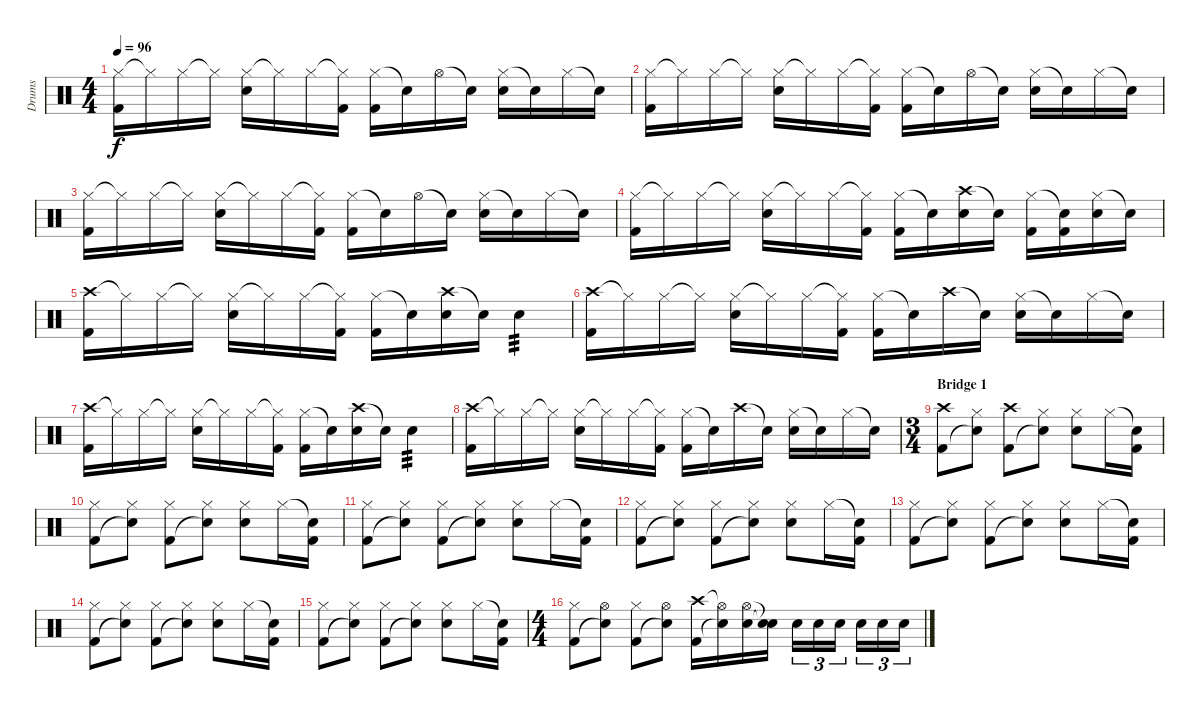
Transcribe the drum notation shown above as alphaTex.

\track ("Drums" "Drums") {instrument percussion}
\staff {score}
\articulation defaults
\ts (4 4)
\tempo 96
\clef neutral
\ks c
("Hi-Hat (closed)" "Kick (hit) 2").16{dy f} "Hi-Hat (closed)"{t}.16 "Hi-Hat (closed)".16 "Hi-Hat (closed)"{t}.16 ("Hi-Hat (closed)" "Electric Snare (hit)").16 "Hi-Hat (closed)"{t}.16 "Hi-Hat (closed)".16 ("Hi-Hat (closed)"{t} "Kick (hit) 2").16 ("Hi-Hat (closed)" "Kick (hit) 2").16 "Snare (hit)"{t}.16 "Hi-Hat (open)".16 "Snare (hit)"{t}.16 ("Hi-Hat (closed)" "Electric Snare (hit)").16 "Snare (hit)"{t}.16 "Hi-Hat (closed)".16 "Snare (hit)"{t}.16 |
("Hi-Hat (closed)" "Kick (hit) 2").16 "Hi-Hat (closed)"{t}.16 "Hi-Hat (closed)".16 "Hi-Hat (closed)"{t}.16 ("Hi-Hat (closed)" "Electric Snare (hit)").16 "Hi-Hat (closed)"{t}.16 "Hi-Hat (closed)".16 ("Hi-Hat (closed)"{t} "Kick (hit) 2").16 ("Hi-Hat (closed)" "Kick (hit) 2").16 "Snare (hit)"{t}.16 "Hi-Hat (open)".16 "Snare (hit)"{t}.16 ("Hi-Hat (closed)" "Electric Snare (hit)").16 "Snare (hit)"{t}.16 "Hi-Hat (closed)".16 "Snare (hit)"{t}.16 |
("Hi-Hat (closed)" "Kick (hit) 2").16 "Hi-Hat (closed)"{t}.16 "Hi-Hat (closed)".16 "Hi-Hat (closed)"{t}.16 ("Hi-Hat (closed)" "Electric Snare (hit)").16 "Hi-Hat (closed)"{t}.16 "Hi-Hat (closed)".16 ("Hi-Hat (closed)"{t} "Kick (hit) 2").16 ("Hi-Hat (closed)" "Kick (hit) 2").16 "Snare (hit)"{t}.16 "Hi-Hat (open)".16 "Snare (hit)"{t}.16 ("Hi-Hat (closed)" "Electric Snare (hit)").16 "Snare (hit)"{t}.16 "Hi-Hat (closed)".16 "Snare (hit)"{t}.16 |
("Hi-Hat (closed)" "Kick (hit) 2").16 "Hi-Hat (closed)"{t}.16 "Hi-Hat (closed)".16 "Hi-Hat (closed)"{t}.16 ("Hi-Hat (closed)" "Electric Snare (hit)").16 "Hi-Hat (closed)"{t}.16 "Hi-Hat (closed)".16 ("Hi-Hat (closed)"{t} "Kick (hit) 2").16 ("Hi-Hat (closed)" "Kick (hit) 2").16 "Snare (hit)"{t}.16 ("Crash high (hit)" "Electric Snare (hit)").16 "Snare (hit)"{t}.16 ("Hi-Hat (closed)" "Kick (hit) 2").16 ("Snare (hit)"{t} "Kick (hit) 2").16 ("Hi-Hat (closed)" "Electric Snare (hit)").16 "Snare (hit)"{t}.16 |
("Crash high (hit)" "Kick (hit) 2").16 "Hi-Hat (closed)"{t}.16 "Hi-Hat (closed)".16 "Hi-Hat (closed)"{t}.16 ("Hi-Hat (closed)" "Electric Snare (hit)").16 "Hi-Hat (closed)"{t}.16 "Hi-Hat (closed)".16 ("Hi-Hat (closed)"{t} "Kick (hit) 2").16 ("Hi-Hat (closed)" "Kick (hit) 2").16 "Snare (hit)"{t}.16 ("Crash high (hit)" "Electric Snare (hit)").16 "Snare (hit)"{t}.16 "Electric Snare (hit)".4{tp 3} |
("Crash high (hit)" "Kick (hit) 2").16 "Hi-Hat (closed)"{t}.16 "Hi-Hat (closed)".16 "Hi-Hat (closed)"{t}.16 ("Hi-Hat (closed)" "Electric Snare (hit)").16 "Hi-Hat (closed)"{t}.16 "Hi-Hat (closed)".16 ("Hi-Hat (closed)"{t} "Kick (hit) 2").16 ("Hi-Hat (closed)" "Kick (hit) 2").16 "Snare (hit)"{t}.16 "Crash high (hit)".16 "Snare (hit)"{t}.16 ("Hi-Hat (closed)" "Electric Snare (hit)").16 "Snare (hit)"{t}.16 "Hi-Hat (closed)".16 "Snare (hit)"{t}.16 |
("Crash high (hit)" "Kick (hit) 2").16 "Hi-Hat (closed)"{t}.16 "Hi-Hat (closed)".16 "Hi-Hat (closed)"{t}.16 ("Hi-Hat (closed)" "Electric Snare (hit)").16 "Hi-Hat (closed)"{t}.16 "Hi-Hat (closed)".16 ("Hi-Hat (closed)"{t} "Kick (hit) 2").16 ("Hi-Hat (closed)" "Kick (hit) 2").16 "Snare (hit)"{t}.16 ("Crash high (hit)" "Electric Snare (hit)").16 "Snare (hit)"{t}.16 "Electric Snare (hit)".4{tp 3} |
("Crash high (hit)" "Kick (hit) 2").16 "Hi-Hat (closed)"{t}.16 "Hi-Hat (closed)".16 "Hi-Hat (closed)"{t}.16 ("Hi-Hat (closed)" "Electric Snare (hit)").16 "Hi-Hat (closed)"{t}.16 "Hi-Hat (closed)".16 ("Hi-Hat (closed)"{t} "Kick (hit) 2").16 ("Hi-Hat (closed)" "Kick (hit) 2").16 "Snare (hit)"{t}.16 "Crash high (hit)".16 "Snare (hit)"{t}.16 ("Hi-Hat (closed)" "Electric Snare (hit)").16 "Snare (hit)"{t}.16 "Hi-Hat (closed)".16 "Snare (hit)"{t}.16 |
\ts (3 4)
\section ("" "Bridge 1")
("Crash high (hit)" "Kick (hit) 2").8 ("Hi-Hat (closed)" "Snare (hit)"{t}).8 ("Crash high (hit)" "Kick (hit) 2").8 ("Hi-Hat (closed)" "Snare (hit)"{t}).8 ("Hi-Hat (closed)" "Electric Snare (hit)").8 "Hi-Hat (closed)".16 ("Snare (hit)"{t} "Kick (hit) 2").16 |
("Hi-Hat (closed)" "Kick (hit) 2").8 ("Hi-Hat (closed)" "Snare (hit)"{t}).8 ("Hi-Hat (closed)" "Kick (hit) 2").8 ("Hi-Hat (closed)" "Snare (hit)"{t}).8 ("Hi-Hat (closed)" "Electric Snare (hit)").8 "Hi-Hat (closed)".16 ("Snare (hit)"{t} "Kick (hit) 2").16 |
("Hi-Hat (closed)" "Kick (hit) 2").8 ("Hi-Hat (closed)" "Snare (hit)"{t}).8 ("Hi-Hat (closed)" "Kick (hit) 2").8 ("Hi-Hat (closed)" "Snare (hit)"{t}).8 ("Hi-Hat (closed)" "Electric Snare (hit)").8 "Hi-Hat (closed)".16 ("Snare (hit)"{t} "Kick (hit) 2").16 |
("Hi-Hat (closed)" "Kick (hit) 2").8 ("Hi-Hat (closed)" "Snare (hit)"{t}).8 ("Hi-Hat (closed)" "Kick (hit) 2").8 ("Hi-Hat (closed)" "Snare (hit)"{t}).8 ("Hi-Hat (closed)" "Electric Snare (hit)").8 "Hi-Hat (closed)".16 ("Snare (hit)"{t} "Kick (hit) 2").16 |
("Hi-Hat (closed)" "Kick (hit) 2").8 ("Hi-Hat (closed)" "Snare (hit)"{t}).8 ("Hi-Hat (closed)" "Kick (hit) 2").8 ("Hi-Hat (closed)" "Snare (hit)"{t}).8 ("Hi-Hat (closed)" "Electric Snare (hit)").8 "Hi-Hat (closed)".16 ("Snare (hit)"{t} "Kick (hit) 2").16 |
("Hi-Hat (closed)" "Kick (hit) 2").8 ("Hi-Hat (closed)" "Snare (hit)"{t}).8 ("Hi-Hat (closed)" "Kick (hit) 2").8 ("Hi-Hat (closed)" "Snare (hit)"{t}).8 ("Hi-Hat (closed)" "Electric Snare (hit)").8 "Hi-Hat (closed)".16 ("Snare (hit)"{t} "Kick (hit) 2").16 |
("Hi-Hat (closed)" "Kick (hit) 2").8 ("Hi-Hat (closed)" "Snare (hit)"{t}).8 ("Hi-Hat (closed)" "Kick (hit) 2").8 ("Hi-Hat (closed)" "Snare (hit)"{t}).8 ("Hi-Hat (closed)" "Electric Snare (hit)").8 "Hi-Hat (closed)".16 ("Snare (hit)"{t} "Kick (hit) 2").16 |
\ts (4 4)
("Hi-Hat (closed)" "Kick (hit) 2").8 ("Hi-Hat (open)" "Snare (hit)"{t}).8 ("Hi-Hat (closed)" "Kick (hit) 2").8 ("Hi-Hat (open)" "Snare (hit)"{t}).8 ("Crash high (hit)" "Kick (hit) 2").16 ("Hi-Hat (open)"{t} "Snare (hit)"{t}).16 ("Hi-Hat (open)" "Electric Snare (hit)").16 ("Snare (hit)"{t} "Electric Snare (hit)"{t}).16 "Electric Snare (hit)".16{tu (3 2)} "Electric Snare (hit)".16{tu (3 2)} "Electric Snare (hit)".16{tu (3 2)} "Electric Snare (hit)".16{tu (3 2)} "Electric Snare (hit)".16{tu (3 2)} "Electric Snare (hit)".16{tu (3 2)}
